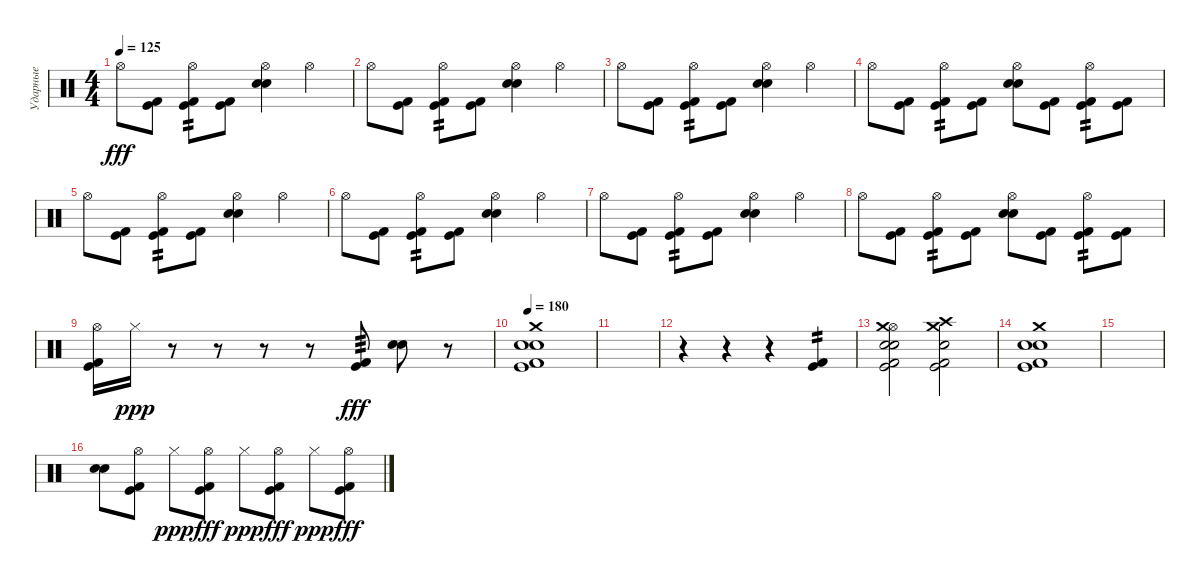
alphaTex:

\track ("Ударные" "Ударные") {instrument percussion}
\staff {score}
\articulation defaults
\ts (4 4)
\tempo 125
\clef neutral
\ks c "Hi-Hat (open)".8{dy fff}
("Kick (hit)" "Kick (hit) 2").8 ("Kick (hit)" "Kick (hit) 2" "Hi-Hat (open)").8{tp 2} ("Kick (hit)" "Kick (hit) 2").8 ("Electric Snare (hit)" "Snare (hit) 2" "Hi-Hat (open)").4 "Hi-Hat (open)".4 |
"Hi-Hat (open)".8 ("Kick (hit)" "Kick (hit) 2").8 ("Kick (hit)" "Kick (hit) 2" "Hi-Hat (open)").8{tp 2} ("Kick (hit)" "Kick (hit) 2").8 ("Electric Snare (hit)" "Snare (hit) 2" "Hi-Hat (open)").4 "Hi-Hat (open)".4 |
"Hi-Hat (open)".8 ("Kick (hit)" "Kick (hit) 2").8 ("Kick (hit)" "Kick (hit) 2" "Hi-Hat (open)").8{tp 2} ("Kick (hit)" "Kick (hit) 2").8 ("Electric Snare (hit)" "Snare (hit) 2" "Hi-Hat (open)").4 "Hi-Hat (open)".4 |
"Hi-Hat (open)".8 ("Kick (hit)" "Kick (hit) 2").8 ("Kick (hit)" "Kick (hit) 2" "Hi-Hat (open)").8{tp 2} ("Kick (hit)" "Kick (hit) 2").8 ("Electric Snare (hit)" "Snare (hit) 2" "Hi-Hat (open)").8 ("Kick (hit)" "Kick (hit) 2").8 ("Kick (hit)" "Kick (hit) 2" "Hi-Hat (open)").8{tp 2} ("Kick (hit)" "Kick (hit) 2").8 |
"Hi-Hat (open)".8 ("Kick (hit)" "Kick (hit) 2").8 ("Kick (hit)" "Kick (hit) 2" "Hi-Hat (open)").8{tp 2} ("Kick (hit)" "Kick (hit) 2").8 ("Electric Snare (hit)" "Snare (hit) 2" "Hi-Hat (open)").4 "Hi-Hat (open)".4 |
"Hi-Hat (open)".8 ("Kick (hit)" "Kick (hit) 2").8 ("Kick (hit)" "Kick (hit) 2" "Hi-Hat (open)").8{tp 2} ("Kick (hit)" "Kick (hit) 2").8 ("Electric Snare (hit)" "Snare (hit) 2" "Hi-Hat (open)").4 "Hi-Hat (open)".4 |
"Hi-Hat (open)".8 ("Kick (hit)" "Kick (hit) 2").8 ("Kick (hit)" "Kick (hit) 2" "Hi-Hat (open)").8{tp 2} ("Kick (hit)" "Kick (hit) 2").8 ("Electric Snare (hit)" "Snare (hit) 2" "Hi-Hat (open)").4 "Hi-Hat (open)".4 |
"Hi-Hat (open)".8 ("Kick (hit)" "Kick (hit) 2").8 ("Kick (hit)" "Kick (hit) 2" "Hi-Hat (open)").8{tp 2} ("Kick (hit)" "Kick (hit) 2").8 ("Electric Snare (hit)" "Snare (hit) 2" "Hi-Hat (open)").8 ("Kick (hit)" "Kick (hit) 2").8 ("Kick (hit)" "Kick (hit) 2" "Hi-Hat (open)").8{tp 2} ("Kick (hit)" "Kick (hit) 2").8 |
("Kick (hit)" "Kick (hit) 2" "Hi-Hat (open)").16 "Hi-Hat (closed)".16{dy ppp} r.8 r.8 r.8 r.8 ("Kick (hit)" "Kick (hit) 2").8{tp 3 dy fff} ("Snare (hit) 2" "Electric Snare (hit)").8 r.8 |
\tempo 180
("Kick (hit) 2" "Kick (hit)" "Electric Snare (hit)" "Snare (hit) 2" "Crash medium (hit)").1 |
|
r.4 r.4 r.4 ("Kick (hit)" "Kick (hit) 2").4{tp 2} |
("Hi-Hat (open)" "Kick (hit) 2" "Kick (hit)" "Snare (hit) 2" "Electric Snare (hit)" "Crash medium (hit)").2 ("Kick (hit) 2" "Kick (hit)" "Snare (hit) 2" "Crash high (hit)" "Crash medium (hit)").2 |
("Kick (hit) 2" "Kick (hit)" "Electric Snare (hit)" "Snare (hit) 2" "Crash medium (hit)").1 |
|
("Snare (hit) 2" "Electric Snare (hit)").8 ("Kick (hit)" "Kick (hit) 2" "Hi-Hat (open)").8 "Hi-Hat (closed)".8{dy ppp} ("Kick (hit)" "Kick (hit) 2" "Hi-Hat (open)").8{dy fff} "Hi-Hat (closed)".8{dy ppp} ("Kick (hit)" "Kick (hit) 2" "Hi-Hat (open)").8{dy fff} "Hi-Hat (closed)".8{dy ppp} ("Kick (hit)" "Kick (hit) 2" "Hi-Hat (open)").8{dy fff}
